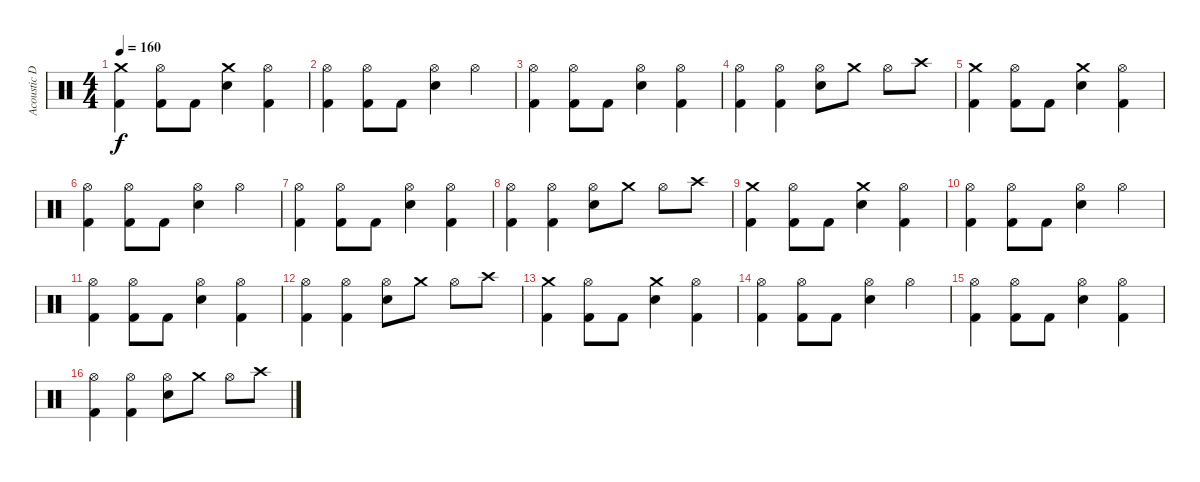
\track ("Acoustic Drums" "Acoustic D") {instrument percussion}
\staff {score}
\articulation defaults
\ts (4 4)
\tempo 160
\clef neutral
\ks c
("Crash medium (hit)" "Kick (hit) 2").4{dy f} ("Hi-Hat (open)" "Kick (hit) 2").8 "Kick (hit) 2".8 ("Crash medium (hit)" "Snare (hit) 2").4 ("Hi-Hat (open)" "Kick (hit) 2").4 |
("Hi-Hat (open)" "Kick (hit) 2").4 ("Hi-Hat (open)" "Kick (hit) 2").8 "Kick (hit) 2".8 ("Hi-Hat (open)" "Snare (hit) 2").4 "Hi-Hat (open)".4 |
("Hi-Hat (open)" "Kick (hit) 2").4 ("Hi-Hat (open)" "Kick (hit) 2").8 "Kick (hit) 2".8 ("Hi-Hat (open)" "Snare (hit) 2").4 ("Hi-Hat (open)" "Kick (hit) 2").4 |
("Hi-Hat (open)" "Kick (hit) 2").4 ("Hi-Hat (open)" "Kick (hit) 2").4 ("Hi-Hat (open)" "Snare (hit) 2").8 "Crash medium (hit)".8 "Hi-Hat (open)".8 "Crash high (hit)".8 |
("Crash medium (hit)" "Kick (hit) 2").4 ("Hi-Hat (open)" "Kick (hit) 2").8 "Kick (hit) 2".8 ("Crash medium (hit)" "Snare (hit) 2").4 ("Hi-Hat (open)" "Kick (hit) 2").4 |
("Hi-Hat (open)" "Kick (hit) 2").4 ("Hi-Hat (open)" "Kick (hit) 2").8 "Kick (hit) 2".8 ("Hi-Hat (open)" "Snare (hit) 2").4 "Hi-Hat (open)".4 |
("Hi-Hat (open)" "Kick (hit) 2").4 ("Hi-Hat (open)" "Kick (hit) 2").8 "Kick (hit) 2".8 ("Hi-Hat (open)" "Snare (hit) 2").4 ("Hi-Hat (open)" "Kick (hit) 2").4 |
("Hi-Hat (open)" "Kick (hit) 2").4 ("Hi-Hat (open)" "Kick (hit) 2").4 ("Hi-Hat (open)" "Snare (hit) 2").8 "Crash medium (hit)".8 "Hi-Hat (open)".8 "Crash high (hit)".8 |
("Crash medium (hit)" "Kick (hit) 2").4{volume 10} ("Hi-Hat (open)" "Kick (hit) 2").8 "Kick (hit) 2".8 ("Crash medium (hit)" "Snare (hit) 2").4 ("Hi-Hat (open)" "Kick (hit) 2").4 |
("Hi-Hat (open)" "Kick (hit) 2").4 ("Hi-Hat (open)" "Kick (hit) 2").8 "Kick (hit) 2".8 ("Hi-Hat (open)" "Snare (hit) 2").4 "Hi-Hat (open)".4 |
("Hi-Hat (open)" "Kick (hit) 2").4 ("Hi-Hat (open)" "Kick (hit) 2").8 "Kick (hit) 2".8 ("Hi-Hat (open)" "Snare (hit) 2").4 ("Hi-Hat (open)" "Kick (hit) 2").4 |
("Hi-Hat (open)" "Kick (hit) 2").4 ("Hi-Hat (open)" "Kick (hit) 2").4 ("Hi-Hat (open)" "Snare (hit) 2").8 "Crash medium (hit)".8 "Hi-Hat (open)".8 "Crash high (hit)".8 |
("Crash medium (hit)" "Kick (hit) 2").4{volume 5} ("Hi-Hat (open)" "Kick (hit) 2").8 "Kick (hit) 2".8 ("Crash medium (hit)" "Snare (hit) 2").4 ("Hi-Hat (open)" "Kick (hit) 2").4 |
("Hi-Hat (open)" "Kick (hit) 2").4 ("Hi-Hat (open)" "Kick (hit) 2").8 "Kick (hit) 2".8 ("Hi-Hat (open)" "Snare (hit) 2").4 "Hi-Hat (open)".4 |
("Hi-Hat (open)" "Kick (hit) 2").4 ("Hi-Hat (open)" "Kick (hit) 2").8 "Kick (hit) 2".8 ("Hi-Hat (open)" "Snare (hit) 2").4 ("Hi-Hat (open)" "Kick (hit) 2").4 |
("Hi-Hat (open)" "Kick (hit) 2").4 ("Hi-Hat (open)" "Kick (hit) 2").4 ("Hi-Hat (open)" "Snare (hit) 2").8 "Crash medium (hit)".8 "Hi-Hat (open)".8 "Crash high (hit)".8
